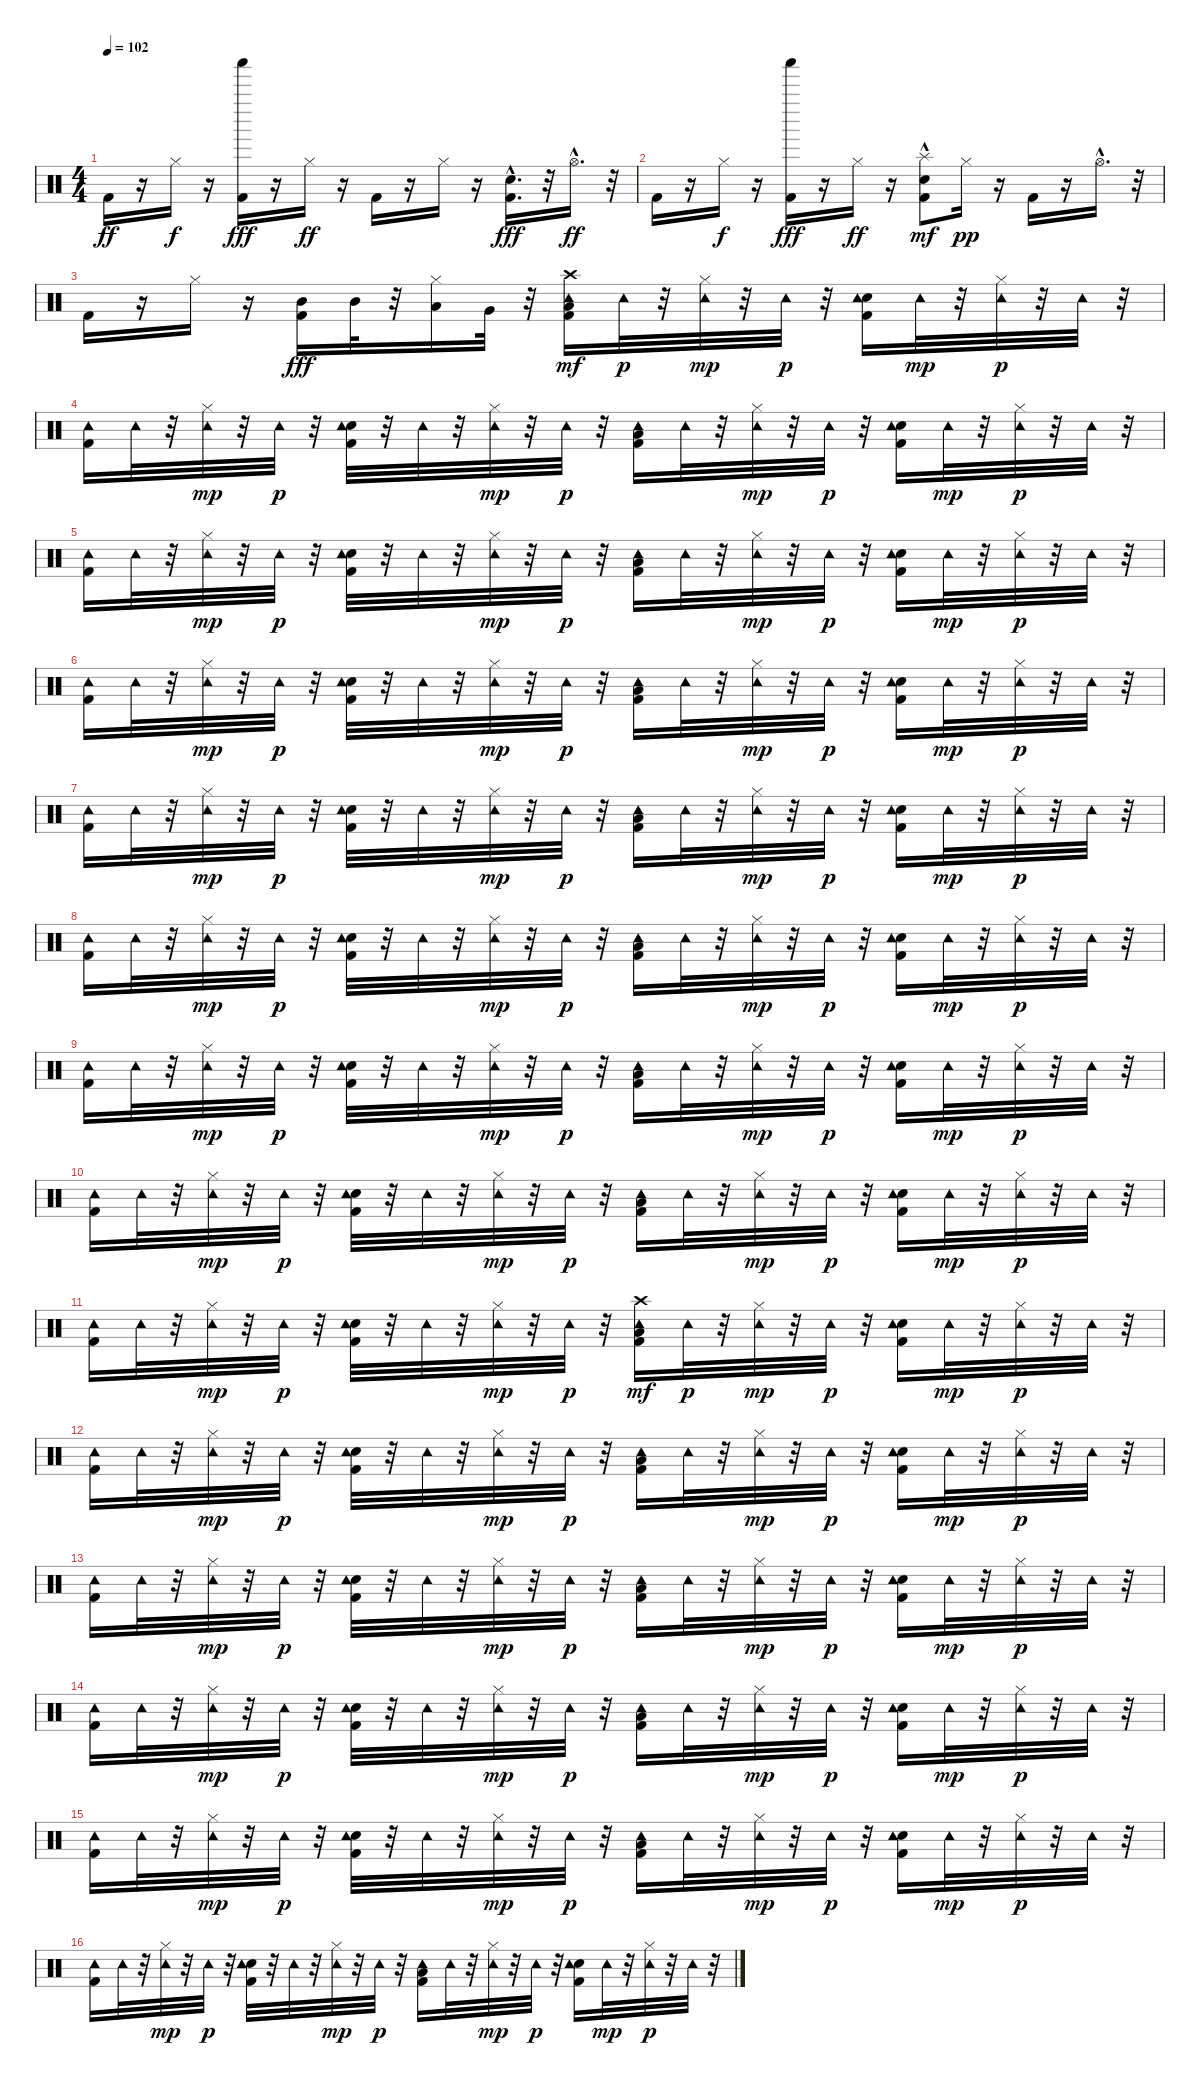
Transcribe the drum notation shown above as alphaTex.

\track "" {instrument percussion}
\staff {score}
\articulation defaults
\ts (4 4)
\tempo 102
\clef neutral
\ks c "Kick (hit) 2".16{dy ff}
r.16 "Hi-Hat (closed)".16{dy f} r.16 ("Kick (hit) 2" "Shaker (hit)").16{dy fff} r.16 "Hi-Hat (closed)".16{dy ff} r.16 "Kick (hit) 2".16 r.16 "Hi-Hat (closed)".16 r.16 ("Kick (hit) 2" "Hand Clap (hit)"{hac}).16{d dy fff} r.32 "Hi-Hat (open)"{hac}.16{d dy ff} r.32 |
"Kick (hit) 2".16 r.16 "Hi-Hat (closed)".16{dy f} r.16 ("Kick (hit) 2" "Shaker (hit)").16{dy fff} r.16 "Hi-Hat (closed)".16{dy ff} r.16 ("Kick (hit) 2" "Hand Clap (hit)" "Splash (hit)"{hac}).8{dy mf} "Hi-Hat (closed)".16{dy pp} r.16 "Kick (hit) 2".16 r.16 "Hi-Hat (open)"{hac}.16{d} r.32 |
"Kick (hit) 2".16 r.16 "Hi-Hat (closed)".16 r.16 ("Kick (hit) 2" "Mid Tom (hit)").16{dy fff} "Mid Tom (hit)".32 r.32 ("Hi-Hat (closed)" "Low Tom (hit)").16 "Very Low Tom (hit)".32 r.32 ("Low Floor Tom (hit)" "Kick (hit) 2" "Tambourine (hit)" "Crash high (hit)").16{dy mf} "Tambourine (hit)".32{dy p} r.32 ("Tambourine (hit)" "Hi-Hat (closed)").32{dy mp} r.32 "Tambourine (hit)".32{dy p} r.32 ("Kick (hit) 2" "Snare (hit) 2" "Tambourine (hit)").16 "Tambourine (hit)".32{dy mp} r.32 ("Tambourine (hit)" "Hi-Hat (closed)").32{dy p} r.32 "Tambourine (hit)".32 r.32 |
("Kick (hit) 2" "Tambourine (hit)").16 "Tambourine (hit)".32 r.32 ("Tambourine (hit)" "Hi-Hat (closed)").32{dy mp} r.32 "Tambourine (hit)".32{dy p} r.32 ("Kick (hit) 2" "Snare (hit) 2" "Tambourine (hit)").32 r.32 "Tambourine (hit)".32 r.32 ("Tambourine (hit)" "Hi-Hat (closed)").32{dy mp} r.32 "Tambourine (hit)".32{dy p} r.32 ("Low Floor Tom (hit)" "Kick (hit) 2" "Tambourine (hit)").16 "Tambourine (hit)".32 r.32 ("Tambourine (hit)" "Hi-Hat (closed)").32{dy mp} r.32 "Tambourine (hit)".32{dy p} r.32 ("Kick (hit) 2" "Snare (hit) 2" "Tambourine (hit)").16 "Tambourine (hit)".32{dy mp} r.32 ("Tambourine (hit)" "Hi-Hat (closed)").32{dy p} r.32 "Tambourine (hit)".32 r.32 |
("Kick (hit) 2" "Tambourine (hit)").16 "Tambourine (hit)".32 r.32 ("Tambourine (hit)" "Hi-Hat (closed)").32{dy mp} r.32 "Tambourine (hit)".32{dy p} r.32 ("Kick (hit) 2" "Snare (hit) 2" "Tambourine (hit)").32 r.32 "Tambourine (hit)".32 r.32 ("Tambourine (hit)" "Hi-Hat (closed)").32{dy mp} r.32 "Tambourine (hit)".32{dy p} r.32 ("Low Floor Tom (hit)" "Kick (hit) 2" "Tambourine (hit)").16 "Tambourine (hit)".32 r.32 ("Tambourine (hit)" "Hi-Hat (closed)").32{dy mp} r.32 "Tambourine (hit)".32{dy p} r.32 ("Kick (hit) 2" "Snare (hit) 2" "Tambourine (hit)").16 "Tambourine (hit)".32{dy mp} r.32 ("Tambourine (hit)" "Hi-Hat (closed)").32{dy p} r.32 "Tambourine (hit)".32 r.32 |
("Kick (hit) 2" "Tambourine (hit)").16 "Tambourine (hit)".32 r.32 ("Tambourine (hit)" "Hi-Hat (closed)").32{dy mp} r.32 "Tambourine (hit)".32{dy p} r.32 ("Kick (hit) 2" "Snare (hit) 2" "Tambourine (hit)").32 r.32 "Tambourine (hit)".32 r.32 ("Tambourine (hit)" "Hi-Hat (closed)").32{dy mp} r.32 "Tambourine (hit)".32{dy p} r.32 ("Low Floor Tom (hit)" "Kick (hit) 2" "Tambourine (hit)").16 "Tambourine (hit)".32 r.32 ("Tambourine (hit)" "Hi-Hat (closed)").32{dy mp} r.32 "Tambourine (hit)".32{dy p} r.32 ("Kick (hit) 2" "Snare (hit) 2" "Tambourine (hit)").16 "Tambourine (hit)".32{dy mp} r.32 ("Tambourine (hit)" "Hi-Hat (closed)").32{dy p} r.32 "Tambourine (hit)".32 r.32 |
("Kick (hit) 2" "Tambourine (hit)").16 "Tambourine (hit)".32 r.32 ("Tambourine (hit)" "Hi-Hat (closed)").32{dy mp} r.32 "Tambourine (hit)".32{dy p} r.32 ("Kick (hit) 2" "Snare (hit) 2" "Tambourine (hit)").32 r.32 "Tambourine (hit)".32 r.32 ("Tambourine (hit)" "Hi-Hat (closed)").32{dy mp} r.32 "Tambourine (hit)".32{dy p} r.32 ("Low Floor Tom (hit)" "Kick (hit) 2" "Tambourine (hit)").16 "Tambourine (hit)".32 r.32 ("Tambourine (hit)" "Hi-Hat (closed)").32{dy mp} r.32 "Tambourine (hit)".32{dy p} r.32 ("Kick (hit) 2" "Snare (hit) 2" "Tambourine (hit)").16 "Tambourine (hit)".32{dy mp} r.32 ("Tambourine (hit)" "Hi-Hat (closed)").32{dy p} r.32 "Tambourine (hit)".32 r.32 |
("Kick (hit) 2" "Tambourine (hit)").16 "Tambourine (hit)".32 r.32 ("Tambourine (hit)" "Hi-Hat (closed)").32{dy mp} r.32 "Tambourine (hit)".32{dy p} r.32 ("Kick (hit) 2" "Snare (hit) 2" "Tambourine (hit)").32 r.32 "Tambourine (hit)".32 r.32 ("Tambourine (hit)" "Hi-Hat (closed)").32{dy mp} r.32 "Tambourine (hit)".32{dy p} r.32 ("Low Floor Tom (hit)" "Kick (hit) 2" "Tambourine (hit)").16 "Tambourine (hit)".32 r.32 ("Tambourine (hit)" "Hi-Hat (closed)").32{dy mp} r.32 "Tambourine (hit)".32{dy p} r.32 ("Kick (hit) 2" "Snare (hit) 2" "Tambourine (hit)").16 "Tambourine (hit)".32{dy mp} r.32 ("Tambourine (hit)" "Hi-Hat (closed)").32{dy p} r.32 "Tambourine (hit)".32 r.32 |
("Kick (hit) 2" "Tambourine (hit)").16 "Tambourine (hit)".32 r.32 ("Tambourine (hit)" "Hi-Hat (closed)").32{dy mp} r.32 "Tambourine (hit)".32{dy p} r.32 ("Kick (hit) 2" "Snare (hit) 2" "Tambourine (hit)").32 r.32 "Tambourine (hit)".32 r.32 ("Tambourine (hit)" "Hi-Hat (closed)").32{dy mp} r.32 "Tambourine (hit)".32{dy p} r.32 ("Low Floor Tom (hit)" "Kick (hit) 2" "Tambourine (hit)").16 "Tambourine (hit)".32 r.32 ("Tambourine (hit)" "Hi-Hat (closed)").32{dy mp} r.32 "Tambourine (hit)".32{dy p} r.32 ("Kick (hit) 2" "Snare (hit) 2" "Tambourine (hit)").16 "Tambourine (hit)".32{dy mp} r.32 ("Tambourine (hit)" "Hi-Hat (closed)").32{dy p} r.32 "Tambourine (hit)".32 r.32 |
("Kick (hit) 2" "Tambourine (hit)").16 "Tambourine (hit)".32 r.32 ("Tambourine (hit)" "Hi-Hat (closed)").32{dy mp} r.32 "Tambourine (hit)".32{dy p} r.32 ("Kick (hit) 2" "Snare (hit) 2" "Tambourine (hit)").32 r.32 "Tambourine (hit)".32 r.32 ("Tambourine (hit)" "Hi-Hat (closed)").32{dy mp} r.32 "Tambourine (hit)".32{dy p} r.32 ("Low Floor Tom (hit)" "Kick (hit) 2" "Tambourine (hit)").16 "Tambourine (hit)".32 r.32 ("Tambourine (hit)" "Hi-Hat (closed)").32{dy mp} r.32 "Tambourine (hit)".32{dy p} r.32 ("Kick (hit) 2" "Snare (hit) 2" "Tambourine (hit)").16 "Tambourine (hit)".32{dy mp} r.32 ("Tambourine (hit)" "Hi-Hat (closed)").32{dy p} r.32 "Tambourine (hit)".32 r.32 |
("Kick (hit) 2" "Tambourine (hit)").16 "Tambourine (hit)".32 r.32 ("Tambourine (hit)" "Hi-Hat (closed)").32{dy mp} r.32 "Tambourine (hit)".32{dy p} r.32 ("Kick (hit) 2" "Snare (hit) 2" "Tambourine (hit)").32 r.32 "Tambourine (hit)".32 r.32 ("Tambourine (hit)" "Hi-Hat (closed)").32{dy mp} r.32 "Tambourine (hit)".32{dy p} r.32 ("Low Floor Tom (hit)" "Kick (hit) 2" "Tambourine (hit)" "Crash high (hit)").16{dy mf} "Tambourine (hit)".32{dy p} r.32 ("Tambourine (hit)" "Hi-Hat (closed)").32{dy mp} r.32 "Tambourine (hit)".32{dy p} r.32 ("Kick (hit) 2" "Snare (hit) 2" "Tambourine (hit)").16 "Tambourine (hit)".32{dy mp} r.32 ("Tambourine (hit)" "Hi-Hat (closed)").32{dy p} r.32 "Tambourine (hit)".32 r.32 |
("Kick (hit) 2" "Tambourine (hit)").16 "Tambourine (hit)".32 r.32 ("Tambourine (hit)" "Hi-Hat (closed)").32{dy mp} r.32 "Tambourine (hit)".32{dy p} r.32 ("Kick (hit) 2" "Snare (hit) 2" "Tambourine (hit)").32 r.32 "Tambourine (hit)".32 r.32 ("Tambourine (hit)" "Hi-Hat (closed)").32{dy mp} r.32 "Tambourine (hit)".32{dy p} r.32 ("Low Floor Tom (hit)" "Kick (hit) 2" "Tambourine (hit)").16 "Tambourine (hit)".32 r.32 ("Tambourine (hit)" "Hi-Hat (closed)").32{dy mp} r.32 "Tambourine (hit)".32{dy p} r.32 ("Kick (hit) 2" "Snare (hit) 2" "Tambourine (hit)").16 "Tambourine (hit)".32{dy mp} r.32 ("Tambourine (hit)" "Hi-Hat (closed)").32{dy p} r.32 "Tambourine (hit)".32 r.32 |
("Kick (hit) 2" "Tambourine (hit)").16 "Tambourine (hit)".32 r.32 ("Tambourine (hit)" "Hi-Hat (closed)").32{dy mp} r.32 "Tambourine (hit)".32{dy p} r.32 ("Kick (hit) 2" "Snare (hit) 2" "Tambourine (hit)").32 r.32 "Tambourine (hit)".32 r.32 ("Tambourine (hit)" "Hi-Hat (closed)").32{dy mp} r.32 "Tambourine (hit)".32{dy p} r.32 ("Low Floor Tom (hit)" "Kick (hit) 2" "Tambourine (hit)").16 "Tambourine (hit)".32 r.32 ("Tambourine (hit)" "Hi-Hat (closed)").32{dy mp} r.32 "Tambourine (hit)".32{dy p} r.32 ("Kick (hit) 2" "Snare (hit) 2" "Tambourine (hit)").16 "Tambourine (hit)".32{dy mp} r.32 ("Tambourine (hit)" "Hi-Hat (closed)").32{dy p} r.32 "Tambourine (hit)".32 r.32 |
("Kick (hit) 2" "Tambourine (hit)").16 "Tambourine (hit)".32 r.32 ("Tambourine (hit)" "Hi-Hat (closed)").32{dy mp} r.32 "Tambourine (hit)".32{dy p} r.32 ("Kick (hit) 2" "Snare (hit) 2" "Tambourine (hit)").32 r.32 "Tambourine (hit)".32 r.32 ("Tambourine (hit)" "Hi-Hat (closed)").32{dy mp} r.32 "Tambourine (hit)".32{dy p} r.32 ("Low Floor Tom (hit)" "Kick (hit) 2" "Tambourine (hit)").16 "Tambourine (hit)".32 r.32 ("Tambourine (hit)" "Hi-Hat (closed)").32{dy mp} r.32 "Tambourine (hit)".32{dy p} r.32 ("Kick (hit) 2" "Snare (hit) 2" "Tambourine (hit)").16 "Tambourine (hit)".32{dy mp} r.32 ("Tambourine (hit)" "Hi-Hat (closed)").32{dy p} r.32 "Tambourine (hit)".32 r.32 |
("Kick (hit) 2" "Tambourine (hit)").16 "Tambourine (hit)".32 r.32 ("Tambourine (hit)" "Hi-Hat (closed)").32{dy mp} r.32 "Tambourine (hit)".32{dy p} r.32 ("Kick (hit) 2" "Snare (hit) 2" "Tambourine (hit)").32 r.32 "Tambourine (hit)".32 r.32 ("Tambourine (hit)" "Hi-Hat (closed)").32{dy mp} r.32 "Tambourine (hit)".32{dy p} r.32 ("Low Floor Tom (hit)" "Kick (hit) 2" "Tambourine (hit)").16 "Tambourine (hit)".32 r.32 ("Tambourine (hit)" "Hi-Hat (closed)").32{dy mp} r.32 "Tambourine (hit)".32{dy p} r.32 ("Kick (hit) 2" "Snare (hit) 2" "Tambourine (hit)").16 "Tambourine (hit)".32{dy mp} r.32 ("Tambourine (hit)" "Hi-Hat (closed)").32{dy p} r.32 "Tambourine (hit)".32 r.32 |
("Kick (hit) 2" "Tambourine (hit)").16 "Tambourine (hit)".32 r.32 ("Tambourine (hit)" "Hi-Hat (closed)").32{dy mp} r.32 "Tambourine (hit)".32{dy p} r.32 ("Kick (hit) 2" "Snare (hit) 2" "Tambourine (hit)").32 r.32 "Tambourine (hit)".32 r.32 ("Tambourine (hit)" "Hi-Hat (closed)").32{dy mp} r.32 "Tambourine (hit)".32{dy p} r.32 ("Low Floor Tom (hit)" "Kick (hit) 2" "Tambourine (hit)").16 "Tambourine (hit)".32 r.32 ("Tambourine (hit)" "Hi-Hat (closed)").32{dy mp} r.32 "Tambourine (hit)".32{dy p} r.32 ("Kick (hit) 2" "Snare (hit) 2" "Tambourine (hit)").16 "Tambourine (hit)".32{dy mp} r.32 ("Tambourine (hit)" "Hi-Hat (closed)").32{dy p} r.32 "Tambourine (hit)".32 r.32
